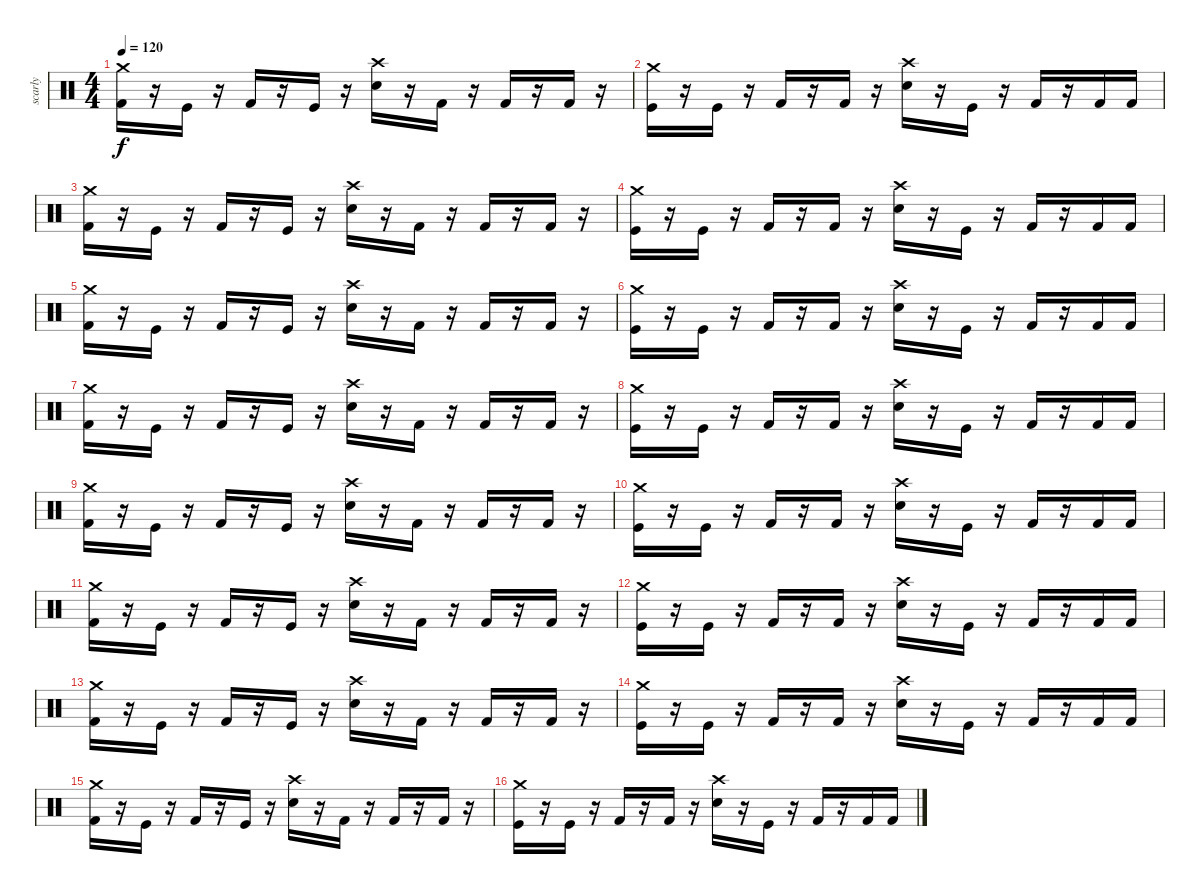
\track ("scarly" "scarly") {instrument percussion}
\staff {score}
\articulation defaults
\ts (4 4)
\tempo 120
\clef neutral
\ks c
("Kick (hit) 2" "Crash medium (hit)").16{dy f} r.16 "Kick (hit)".16 r.16 "Kick (hit) 2".16 r.16 "Kick (hit)".16 r.16 ("Snare (hit) 2" "Crash high (hit)").16 r.16 "Kick (hit) 2".16 r.16 "Kick (hit) 2".16 r.16 "Kick (hit) 2".16 r.16 |
("Kick (hit)" "Crash medium (hit)").16 r.16 "Kick (hit)".16 r.16 "Kick (hit) 2".16 r.16 "Kick (hit) 2".16 r.16 ("Snare (hit) 2" "Crash high (hit)").16 r.16 "Kick (hit)".16 r.16 "Kick (hit) 2".16 r.16 "Kick (hit) 2".16 "Kick (hit) 2".16 |
("Kick (hit) 2" "Crash medium (hit)").16 r.16 "Kick (hit)".16 r.16 "Kick (hit) 2".16 r.16 "Kick (hit)".16 r.16 ("Snare (hit) 2" "Crash high (hit)").16 r.16 "Kick (hit) 2".16 r.16 "Kick (hit) 2".16 r.16 "Kick (hit) 2".16 r.16 |
("Kick (hit)" "Crash medium (hit)").16 r.16 "Kick (hit)".16 r.16 "Kick (hit) 2".16 r.16 "Kick (hit) 2".16 r.16 ("Snare (hit) 2" "Crash high (hit)").16 r.16 "Kick (hit)".16 r.16 "Kick (hit) 2".16 r.16 "Kick (hit) 2".16 "Kick (hit) 2".16 |
("Kick (hit) 2" "Crash medium (hit)").16 r.16 "Kick (hit)".16 r.16 "Kick (hit) 2".16 r.16 "Kick (hit)".16 r.16 ("Snare (hit) 2" "Crash high (hit)").16 r.16 "Kick (hit) 2".16 r.16 "Kick (hit) 2".16 r.16 "Kick (hit) 2".16 r.16 |
("Kick (hit)" "Crash medium (hit)").16 r.16 "Kick (hit)".16 r.16 "Kick (hit) 2".16 r.16 "Kick (hit) 2".16 r.16 ("Snare (hit) 2" "Crash high (hit)").16 r.16 "Kick (hit)".16 r.16 "Kick (hit) 2".16 r.16 "Kick (hit) 2".16 "Kick (hit) 2".16 |
("Kick (hit) 2" "Crash medium (hit)").16 r.16 "Kick (hit)".16 r.16 "Kick (hit) 2".16 r.16 "Kick (hit)".16 r.16 ("Snare (hit) 2" "Crash high (hit)").16 r.16 "Kick (hit) 2".16 r.16 "Kick (hit) 2".16 r.16 "Kick (hit) 2".16 r.16 |
("Kick (hit)" "Crash medium (hit)").16 r.16 "Kick (hit)".16 r.16 "Kick (hit) 2".16 r.16 "Kick (hit) 2".16 r.16 ("Snare (hit) 2" "Crash high (hit)").16 r.16 "Kick (hit)".16 r.16 "Kick (hit) 2".16 r.16 "Kick (hit) 2".16 "Kick (hit) 2".16 |
("Kick (hit) 2" "Crash medium (hit)").16 r.16 "Kick (hit)".16 r.16 "Kick (hit) 2".16 r.16 "Kick (hit)".16 r.16 ("Snare (hit) 2" "Crash high (hit)").16 r.16 "Kick (hit) 2".16 r.16 "Kick (hit) 2".16 r.16 "Kick (hit) 2".16 r.16 |
("Kick (hit)" "Crash medium (hit)").16 r.16 "Kick (hit)".16 r.16 "Kick (hit) 2".16 r.16 "Kick (hit) 2".16 r.16 ("Snare (hit) 2" "Crash high (hit)").16 r.16 "Kick (hit)".16 r.16 "Kick (hit) 2".16 r.16 "Kick (hit) 2".16 "Kick (hit) 2".16 |
("Kick (hit) 2" "Crash medium (hit)").16 r.16 "Kick (hit)".16 r.16 "Kick (hit) 2".16 r.16 "Kick (hit)".16 r.16 ("Snare (hit) 2" "Crash high (hit)").16 r.16 "Kick (hit) 2".16 r.16 "Kick (hit) 2".16 r.16 "Kick (hit) 2".16 r.16 |
("Kick (hit)" "Crash medium (hit)").16 r.16 "Kick (hit)".16 r.16 "Kick (hit) 2".16 r.16 "Kick (hit) 2".16 r.16 ("Snare (hit) 2" "Crash high (hit)").16 r.16 "Kick (hit)".16 r.16 "Kick (hit) 2".16 r.16 "Kick (hit) 2".16 "Kick (hit) 2".16 |
("Kick (hit) 2" "Crash medium (hit)").16 r.16 "Kick (hit)".16 r.16 "Kick (hit) 2".16 r.16 "Kick (hit)".16 r.16 ("Snare (hit) 2" "Crash high (hit)").16 r.16 "Kick (hit) 2".16 r.16 "Kick (hit) 2".16 r.16 "Kick (hit) 2".16 r.16 |
("Kick (hit)" "Crash medium (hit)").16 r.16 "Kick (hit)".16 r.16 "Kick (hit) 2".16 r.16 "Kick (hit) 2".16 r.16 ("Snare (hit) 2" "Crash high (hit)").16 r.16 "Kick (hit)".16 r.16 "Kick (hit) 2".16 r.16 "Kick (hit) 2".16 "Kick (hit) 2".16 |
("Kick (hit) 2" "Crash medium (hit)").16 r.16 "Kick (hit)".16 r.16 "Kick (hit) 2".16 r.16 "Kick (hit)".16 r.16 ("Snare (hit) 2" "Crash high (hit)").16 r.16 "Kick (hit) 2".16 r.16 "Kick (hit) 2".16 r.16 "Kick (hit) 2".16 r.16 |
("Kick (hit)" "Crash medium (hit)").16 r.16 "Kick (hit)".16 r.16 "Kick (hit) 2".16 r.16 "Kick (hit) 2".16 r.16 ("Snare (hit) 2" "Crash high (hit)").16 r.16 "Kick (hit)".16 r.16 "Kick (hit) 2".16 r.16 "Kick (hit) 2".16 "Kick (hit) 2".16
